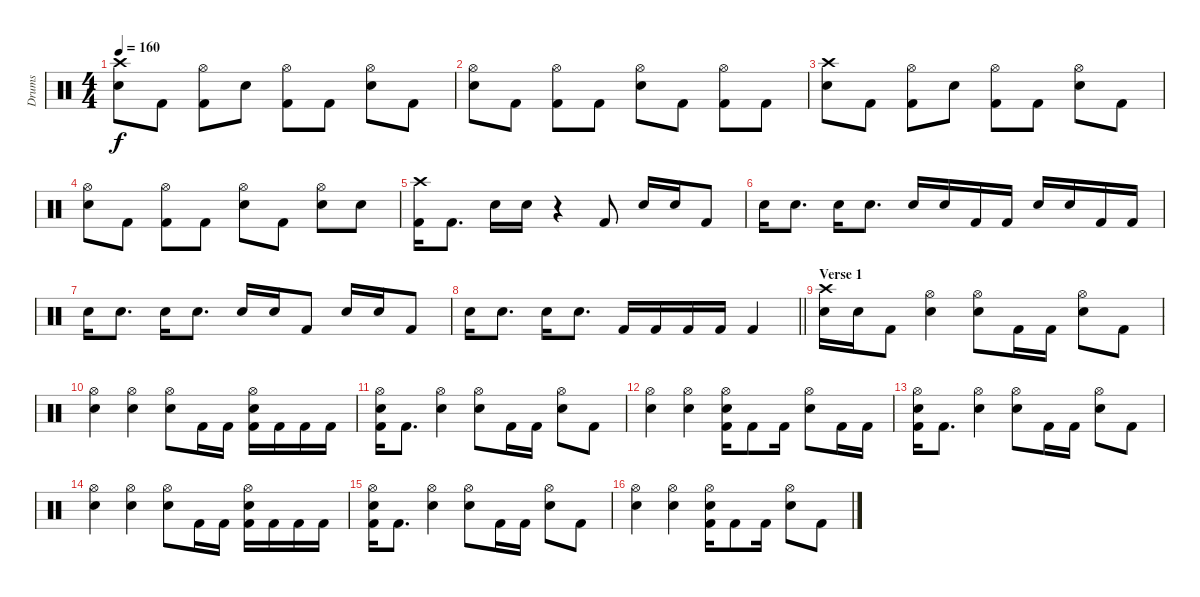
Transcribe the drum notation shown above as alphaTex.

\track ("Drums" "Drums") {instrument percussion}
\staff {score}
\articulation defaults
\ts (4 4)
\tempo 160
\clef neutral
\ks c
("Crash high (hit)" "Electric Snare (hit)").8{dy f} "Kick (hit) 2".8 ("Hi-Hat (open)" "Kick (hit) 2").8 "Electric Snare (hit)".8 ("Hi-Hat (open)" "Kick (hit) 2").8 "Kick (hit) 2".8 ("Hi-Hat (open)" "Electric Snare (hit)").8 "Kick (hit) 2".8 |
("Hi-Hat (open)" "Electric Snare (hit)").8 "Kick (hit) 2".8 ("Hi-Hat (open)" "Kick (hit) 2").8 "Kick (hit) 2".8 ("Hi-Hat (open)" "Electric Snare (hit)").8 "Kick (hit) 2".8 ("Hi-Hat (open)" "Kick (hit) 2").8 "Kick (hit) 2".8 |
("Crash high (hit)" "Electric Snare (hit)").8 "Kick (hit) 2".8 ("Hi-Hat (open)" "Kick (hit) 2").8 "Electric Snare (hit)".8 ("Hi-Hat (open)" "Kick (hit) 2").8 "Kick (hit) 2".8 ("Hi-Hat (open)" "Electric Snare (hit)").8 "Kick (hit) 2".8 |
("Hi-Hat (open)" "Electric Snare (hit)").8 "Kick (hit) 2".8 ("Hi-Hat (open)" "Kick (hit) 2").8 "Kick (hit) 2".8 ("Hi-Hat (open)" "Electric Snare (hit)").8 "Kick (hit) 2".8 ("Hi-Hat (open)" "Electric Snare (hit)").8 "Electric Snare (hit)".8 |
("Crash high (hit)" "Kick (hit) 2").16 "Kick (hit) 2".8{d} "Electric Snare (hit)".16 "Electric Snare (hit)".16 r.4 "Kick (hit) 2".8 "Electric Snare (hit)".16 "Electric Snare (hit)".16 "Kick (hit) 2".8 |
"Electric Snare (hit)".16 "Electric Snare (hit)".8{d} "Electric Snare (hit)".16 "Electric Snare (hit)".8{d} "Electric Snare (hit)".16 "Electric Snare (hit)".16 "Kick (hit) 2".16 "Kick (hit) 2".16 "Electric Snare (hit)".16 "Electric Snare (hit)".16 "Kick (hit) 2".16 "Kick (hit) 2".16 |
"Electric Snare (hit)".16 "Electric Snare (hit)".8{d} "Electric Snare (hit)".16 "Electric Snare (hit)".8{d} "Electric Snare (hit)".16 "Electric Snare (hit)".16 "Kick (hit) 2".8 "Electric Snare (hit)".16 "Electric Snare (hit)".16 "Kick (hit) 2".8 |
\barLineRight lightlight "Electric Snare (hit)".16 "Electric Snare (hit)".8{d} "Electric Snare (hit)".16 "Electric Snare (hit)".8{d} "Kick (hit) 2".16 "Kick (hit) 2".16 "Kick (hit) 2".16 "Kick (hit) 2".16 "Kick (hit) 2".4
|
\section ("" "Verse 1")
("Crash high (hit)" "Electric Snare (hit)").16 "Electric Snare (hit)".16 "Kick (hit) 2".8 ("Hi-Hat (open)" "Electric Snare (hit)").4 ("Hi-Hat (open)" "Electric Snare (hit)").8 "Kick (hit) 2".16 "Kick (hit) 2".16 ("Hi-Hat (open)" "Electric Snare (hit)").8 "Kick (hit) 2".8 |
("Hi-Hat (open)" "Electric Snare (hit)").4 ("Hi-Hat (open)" "Electric Snare (hit)").4 ("Hi-Hat (open)" "Electric Snare (hit)").8 "Kick (hit) 2".16 "Kick (hit) 2".16 ("Hi-Hat (open)" "Electric Snare (hit)" "Kick (hit) 2").16 "Kick (hit) 2".16 "Kick (hit) 2".16 "Kick (hit) 2".16 |
("Hi-Hat (open)" "Electric Snare (hit)" "Kick (hit) 2").16 "Kick (hit) 2".8{d} ("Hi-Hat (open)" "Electric Snare (hit)").4 ("Hi-Hat (open)" "Electric Snare (hit)").8 "Kick (hit) 2".16 "Kick (hit) 2".16 ("Hi-Hat (open)" "Electric Snare (hit)").8 "Kick (hit) 2".8 |
("Hi-Hat (open)" "Electric Snare (hit)").4 ("Hi-Hat (open)" "Electric Snare (hit)").4 ("Hi-Hat (open)" "Electric Snare (hit)" "Kick (hit) 2").16 "Kick (hit) 2".8 "Kick (hit) 2".16 ("Hi-Hat (open)" "Electric Snare (hit)").8 "Kick (hit) 2".16 "Kick (hit) 2".16 |
("Hi-Hat (open)" "Electric Snare (hit)" "Kick (hit) 2").16 "Kick (hit) 2".8{d} ("Hi-Hat (open)" "Electric Snare (hit)").4 ("Hi-Hat (open)" "Electric Snare (hit)").8 "Kick (hit) 2".16 "Kick (hit) 2".16 ("Hi-Hat (open)" "Electric Snare (hit)").8 "Kick (hit) 2".8 |
("Hi-Hat (open)" "Electric Snare (hit)").4 ("Hi-Hat (open)" "Electric Snare (hit)").4 ("Hi-Hat (open)" "Electric Snare (hit)").8 "Kick (hit) 2".16 "Kick (hit) 2".16 ("Hi-Hat (open)" "Electric Snare (hit)" "Kick (hit) 2").16 "Kick (hit) 2".16 "Kick (hit) 2".16 "Kick (hit) 2".16 |
("Hi-Hat (open)" "Electric Snare (hit)" "Kick (hit) 2").16 "Kick (hit) 2".8{d} ("Hi-Hat (open)" "Electric Snare (hit)").4 ("Hi-Hat (open)" "Electric Snare (hit)").8 "Kick (hit) 2".16 "Kick (hit) 2".16 ("Hi-Hat (open)" "Electric Snare (hit)").8 "Kick (hit) 2".8 |
("Hi-Hat (open)" "Electric Snare (hit)").4 ("Hi-Hat (open)" "Electric Snare (hit)").4 ("Hi-Hat (open)" "Electric Snare (hit)" "Kick (hit) 2").16 "Kick (hit) 2".8 "Kick (hit) 2".16 ("Hi-Hat (open)" "Electric Snare (hit)").8 "Kick (hit) 2".8
